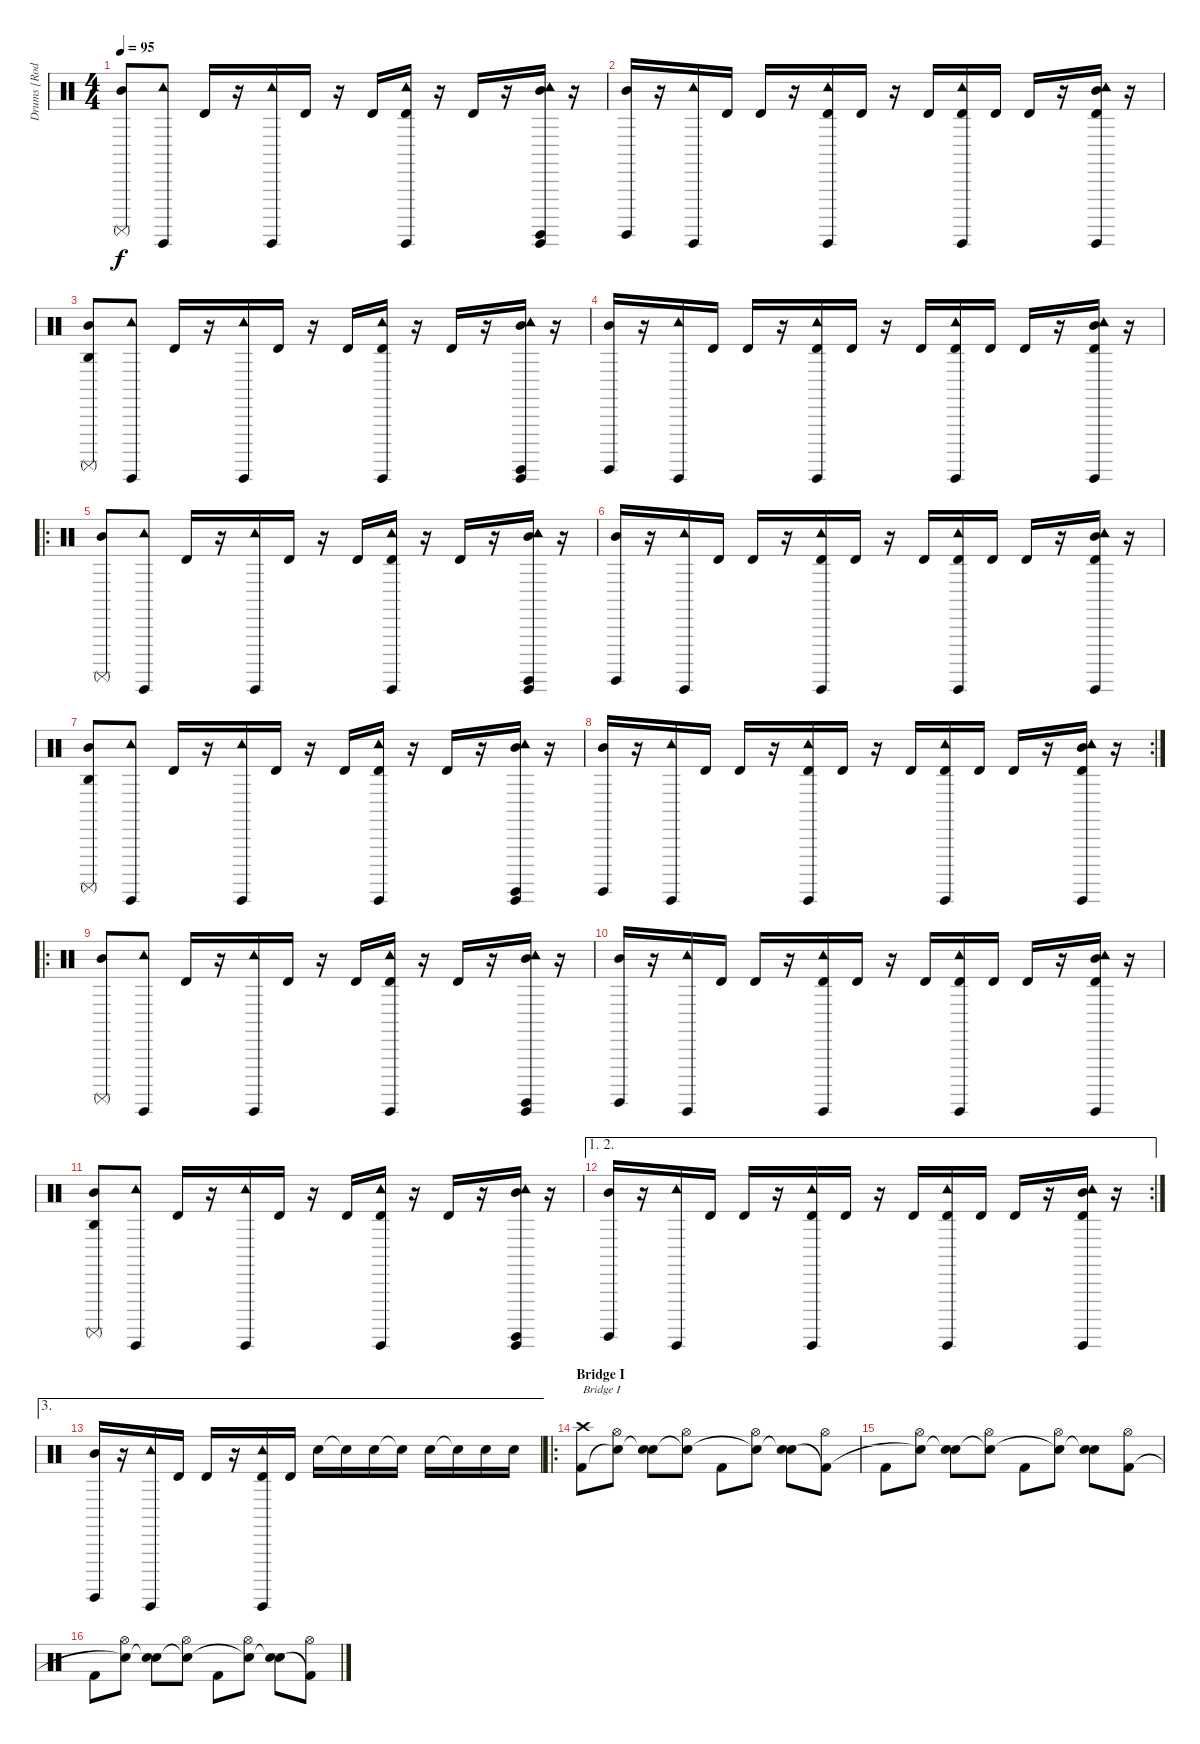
\track ("Drums [Rodney Holder]" "Drums [Rod") {instrument percussion}
\staff {score}
\articulation defaults
\ts (4 4)
\tempo 95
\clef neutral
\ks c
("Surdo (mute)" "Mid Tom (hit)").8{dy f} ("Tambourine (hit)" "Guiro (hit)").8 "Timbale high (hit)".16 r.16 ("Tambourine (hit)" "Guiro (hit)").16 "Timbale high (hit)".16 r.16 "Timbale high (hit)".16 ("Tambourine (hit)" "Guiro (hit)" "Timbale high (hit)").16 r.16 "Timbale high (hit)".16 r.16 ("Tambourine (hit)" "Guiro (hit)" "Surdo (hit)" "Mid Tom (hit)").16 r.16 |
("Surdo (hit)" "Mid Tom (hit)").16 r.16 ("Tambourine (hit)" "Guiro (hit)").16 "Timbale high (hit)".16 "Timbale high (hit)".16 r.16 ("Tambourine (hit)" "Guiro (hit)" "Timbale high (hit)").16 "Timbale high (hit)".16 r.16 "Timbale high (hit)".16 ("Tambourine (hit)" "Guiro (hit)" "Timbale high (hit)").16 "Timbale high (hit)".16 "Timbale high (hit)".16 r.16 ("Tambourine (hit)" "Guiro (hit)" "Timbale high (hit)" "Mid Tom (hit)").16 r.16 |
("Agogo high (hit)" "Surdo (mute)" "Mid Tom (hit)").8 ("Tambourine (hit)" "Guiro (hit)").8 "Timbale high (hit)".16 r.16 ("Tambourine (hit)" "Guiro (hit)").16 "Timbale high (hit)".16 r.16 "Timbale high (hit)".16 ("Tambourine (hit)" "Guiro (hit)" "Timbale high (hit)").16 r.16 "Timbale high (hit)".16 r.16 ("Tambourine (hit)" "Guiro (hit)" "Surdo (hit)" "Mid Tom (hit)").16 r.16 |
("Surdo (hit)" "Mid Tom (hit)").16 r.16 ("Tambourine (hit)" "Guiro (hit)").16 "Timbale high (hit)".16 "Timbale high (hit)".16 r.16 ("Tambourine (hit)" "Guiro (hit)" "Timbale high (hit)").16 "Timbale high (hit)".16 r.16 "Timbale high (hit)".16 ("Tambourine (hit)" "Guiro (hit)" "Timbale high (hit)").16 "Timbale high (hit)".16 "Timbale high (hit)".16 r.16 ("Tambourine (hit)" "Guiro (hit)" "Timbale high (hit)" "Mid Tom (hit)").16 r.16 |
\ro
("Surdo (mute)" "Mid Tom (hit)").8 ("Tambourine (hit)" "Guiro (hit)").8 "Timbale high (hit)".16 r.16 ("Tambourine (hit)" "Guiro (hit)").16 "Timbale high (hit)".16 r.16 "Timbale high (hit)".16 ("Tambourine (hit)" "Guiro (hit)" "Timbale high (hit)").16 r.16 "Timbale high (hit)".16 r.16 ("Tambourine (hit)" "Guiro (hit)" "Surdo (hit)" "Mid Tom (hit)").16 r.16 |
("Surdo (hit)" "Mid Tom (hit)").16 r.16 ("Tambourine (hit)" "Guiro (hit)").16 "Timbale high (hit)".16 "Timbale high (hit)".16 r.16 ("Tambourine (hit)" "Guiro (hit)" "Timbale high (hit)").16 "Timbale high (hit)".16 r.16 "Timbale high (hit)".16 ("Tambourine (hit)" "Guiro (hit)" "Timbale high (hit)").16 "Timbale high (hit)".16 "Timbale high (hit)".16 r.16 ("Tambourine (hit)" "Guiro (hit)" "Timbale high (hit)" "Mid Tom (hit)").16 r.16 |
("Agogo high (hit)" "Surdo (mute)" "Mid Tom (hit)").8 ("Tambourine (hit)" "Guiro (hit)").8 "Timbale high (hit)".16 r.16 ("Tambourine (hit)" "Guiro (hit)").16 "Timbale high (hit)".16 r.16 "Timbale high (hit)".16 ("Tambourine (hit)" "Guiro (hit)" "Timbale high (hit)").16 r.16 "Timbale high (hit)".16 r.16 ("Tambourine (hit)" "Guiro (hit)" "Surdo (hit)" "Mid Tom (hit)").16 r.16 |
\rc 2
("Surdo (hit)" "Mid Tom (hit)").16 r.16 ("Tambourine (hit)" "Guiro (hit)").16 "Timbale high (hit)".16 "Timbale high (hit)".16 r.16 ("Tambourine (hit)" "Guiro (hit)" "Timbale high (hit)").16 "Timbale high (hit)".16 r.16 "Timbale high (hit)".16 ("Tambourine (hit)" "Guiro (hit)" "Timbale high (hit)").16 "Timbale high (hit)".16 "Timbale high (hit)".16 r.16 ("Tambourine (hit)" "Guiro (hit)" "Timbale high (hit)" "Mid Tom (hit)").16 r.16 |
\ro
("Surdo (mute)" "Mid Tom (hit)").8 ("Tambourine (hit)" "Guiro (hit)").8 "Timbale high (hit)".16 r.16 ("Tambourine (hit)" "Guiro (hit)").16 "Timbale high (hit)".16 r.16 "Timbale high (hit)".16 ("Tambourine (hit)" "Guiro (hit)" "Timbale high (hit)").16 r.16 "Timbale high (hit)".16 r.16 ("Tambourine (hit)" "Guiro (hit)" "Surdo (hit)" "Mid Tom (hit)").16 r.16 |
("Surdo (hit)" "Mid Tom (hit)").16 r.16 ("Tambourine (hit)" "Guiro (hit)").16 "Timbale high (hit)".16 "Timbale high (hit)".16 r.16 ("Tambourine (hit)" "Guiro (hit)" "Timbale high (hit)").16 "Timbale high (hit)".16 r.16 "Timbale high (hit)".16 ("Tambourine (hit)" "Guiro (hit)" "Timbale high (hit)").16 "Timbale high (hit)".16 "Timbale high (hit)".16 r.16 ("Tambourine (hit)" "Guiro (hit)" "Timbale high (hit)" "Mid Tom (hit)").16 r.16 |
("Agogo high (hit)" "Surdo (mute)" "Mid Tom (hit)").8 ("Tambourine (hit)" "Guiro (hit)").8 "Timbale high (hit)".16 r.16 ("Tambourine (hit)" "Guiro (hit)").16 "Timbale high (hit)".16 r.16 "Timbale high (hit)".16 ("Tambourine (hit)" "Guiro (hit)" "Timbale high (hit)").16 r.16 "Timbale high (hit)".16 r.16 ("Tambourine (hit)" "Guiro (hit)" "Surdo (hit)" "Mid Tom (hit)").16 r.16 |
\ae (1 2)
\rc 2
("Surdo (hit)" "Mid Tom (hit)").16 r.16 ("Tambourine (hit)" "Guiro (hit)").16 "Timbale high (hit)".16 "Timbale high (hit)".16 r.16 ("Tambourine (hit)" "Guiro (hit)" "Timbale high (hit)").16 "Timbale high (hit)".16 r.16 "Timbale high (hit)".16 ("Tambourine (hit)" "Guiro (hit)" "Timbale high (hit)").16 "Timbale high (hit)".16 "Timbale high (hit)".16 r.16 ("Tambourine (hit)" "Guiro (hit)" "Timbale high (hit)" "Mid Tom (hit)").16 r.16 |
\ae 3
("Surdo (hit)" "Mid Tom (hit)").16 r.16 ("Tambourine (hit)" "Guiro (hit)").16 "Timbale high (hit)".16 "Timbale high (hit)".16 r.16 ("Tambourine (hit)" "Guiro (hit)" "Timbale high (hit)").16 "Timbale high (hit)".16 "Electric Snare (hit)".16 "Snare (hit)"{t}.16 "Electric Snare (hit)".16 "Snare (hit)"{t}.16 "Electric Snare (hit)".16 "Snare (hit)"{t}.16 "Electric Snare (hit)".16 "Electric Snare (hit)".16 |
\ro
\section ("" "Bridge I")
("Crash high (hit)" "Kick (hit) 2").8{txt "Bridge I"} ("Hi-Hat (open)" "Snare (hit)"{t}).8 ("Electric Snare (hit)" "Snare (hit)"{t}).8 ("Hi-Hat (open)" "Snare (hit)"{t}).8 "Kick (hit) 2".8 ("Hi-Hat (open)" "Snare (hit)"{t}).8 ("Electric Snare (hit)" "Snare (hit)"{t}).8 ("Hi-Hat (open)" "Kick (hit) 2"{t}).8 |
"Kick (hit) 2".8 ("Hi-Hat (open)" "Snare (hit)"{t}).8 ("Electric Snare (hit)" "Snare (hit)"{t}).8 ("Hi-Hat (open)" "Snare (hit)"{t}).8 "Kick (hit) 2".8 ("Hi-Hat (open)" "Snare (hit)"{t}).8 ("Electric Snare (hit)" "Snare (hit)"{t}).8 ("Hi-Hat (open)" "Kick (hit) 2").8 |
"Kick (hit) 2".8 ("Hi-Hat (open)" "Snare (hit)"{t}).8 ("Electric Snare (hit)" "Snare (hit)"{t}).8 ("Hi-Hat (open)" "Snare (hit)"{t}).8 "Kick (hit) 2".8 ("Hi-Hat (open)" "Snare (hit)"{t}).8 ("Electric Snare (hit)" "Snare (hit)"{t}).8 ("Hi-Hat (open)" "Kick (hit) 2"{t}).8
